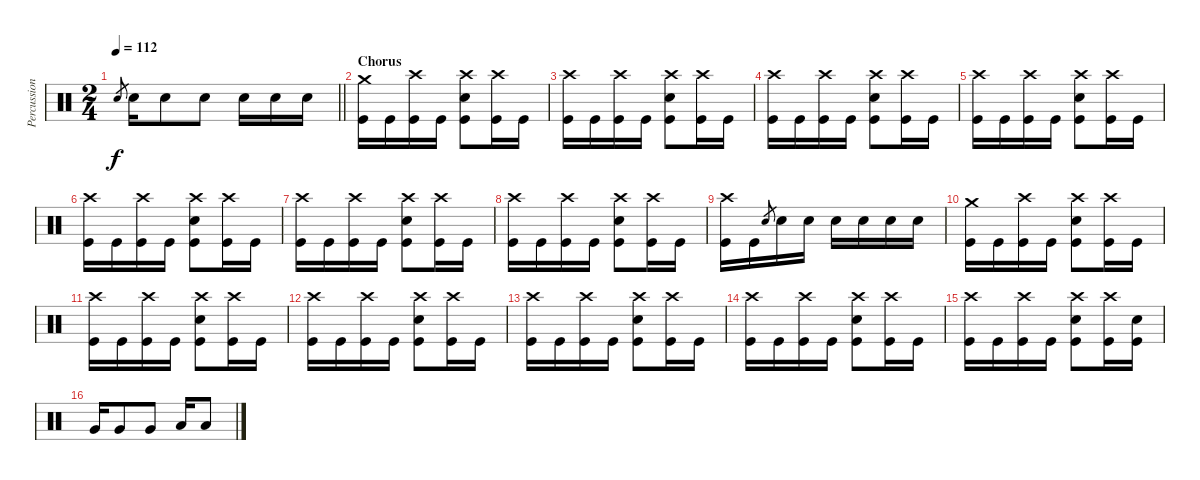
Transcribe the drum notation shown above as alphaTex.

\track ("Percussion" "Percussion") {instrument percussion}
\staff {score}
\articulation defaults
\ts (2 4)
\tempo 112
\clef neutral
\barLineRight lightlight
\ks c "Electric Snare (hit)".8{gr dy f} "Electric Snare (hit)".16 "Electric Snare (hit)".8 "Electric Snare (hit)".8 "Electric Snare (hit)".16 "Electric Snare (hit)".16 "Electric Snare (hit)".16
|
\section ("" "Chorus")
("Crash medium (hit)" "Kick (hit)").16 "Kick (hit)".16 ("Crash high (hit)" "Kick (hit)").16 "Kick (hit)".16 ("Crash high (hit)" "Electric Snare (hit)" "Kick (hit)").8 ("Crash high (hit)" "Kick (hit)").16 "Kick (hit)".16 |
("Crash high (hit)" "Kick (hit)").16 "Kick (hit)".16 ("Crash high (hit)" "Kick (hit)").16 "Kick (hit)".16 ("Crash high (hit)" "Electric Snare (hit)" "Kick (hit)").8 ("Crash high (hit)" "Kick (hit)").16 "Kick (hit)".16 |
("Crash high (hit)" "Kick (hit)").16 "Kick (hit)".16 ("Crash high (hit)" "Kick (hit)").16 "Kick (hit)".16 ("Crash high (hit)" "Electric Snare (hit)" "Kick (hit)").8 ("Crash high (hit)" "Kick (hit)").16 "Kick (hit)".16 |
("Crash high (hit)" "Kick (hit)").16 "Kick (hit)".16 ("Crash high (hit)" "Kick (hit)").16 "Kick (hit)".16 ("Crash high (hit)" "Electric Snare (hit)" "Kick (hit)").8 ("Crash high (hit)" "Kick (hit)").16 "Kick (hit)".16 |
("Crash high (hit)" "Kick (hit)").16 "Kick (hit)".16 ("Crash high (hit)" "Kick (hit)").16 "Kick (hit)".16 ("Crash high (hit)" "Electric Snare (hit)" "Kick (hit)").8 ("Crash high (hit)" "Kick (hit)").16 "Kick (hit)".16 |
("Crash high (hit)" "Kick (hit)").16 "Kick (hit)".16 ("Crash high (hit)" "Kick (hit)").16 "Kick (hit)".16 ("Crash high (hit)" "Electric Snare (hit)" "Kick (hit)").8 ("Crash high (hit)" "Kick (hit)").16 "Kick (hit)".16 |
("Crash high (hit)" "Kick (hit)").16 "Kick (hit)".16 ("Crash high (hit)" "Kick (hit)").16 "Kick (hit)".16 ("Crash high (hit)" "Electric Snare (hit)" "Kick (hit)").8 ("Crash high (hit)" "Kick (hit)").16 "Kick (hit)".16 |
("Crash high (hit)" "Kick (hit)").16 "Kick (hit)".16 "Electric Snare (hit)".8{gr} "Electric Snare (hit)".16 "Electric Snare (hit)".16 "Electric Snare (hit)".16 "Electric Snare (hit)".16 "Electric Snare (hit)".16 "Electric Snare (hit)".16 |
("Crash medium (hit)" "Kick (hit)").16 "Kick (hit)".16 ("Crash high (hit)" "Kick (hit)").16 "Kick (hit)".16 ("Crash high (hit)" "Electric Snare (hit)" "Kick (hit)").8 ("Crash high (hit)" "Kick (hit)").16 "Kick (hit)".16 |
("Crash high (hit)" "Kick (hit)").16 "Kick (hit)".16 ("Crash high (hit)" "Kick (hit)").16 "Kick (hit)".16 ("Crash high (hit)" "Electric Snare (hit)" "Kick (hit)").8 ("Crash high (hit)" "Kick (hit)").16 "Kick (hit)".16 |
("Crash high (hit)" "Kick (hit)").16 "Kick (hit)".16 ("Crash high (hit)" "Kick (hit)").16 "Kick (hit)".16 ("Crash high (hit)" "Electric Snare (hit)" "Kick (hit)").8 ("Crash high (hit)" "Kick (hit)").16 "Kick (hit)".16 |
("Crash high (hit)" "Kick (hit)").16 "Kick (hit)".16 ("Crash high (hit)" "Kick (hit)").16 "Kick (hit)".16 ("Crash high (hit)" "Electric Snare (hit)" "Kick (hit)").8 ("Crash high (hit)" "Kick (hit)").16 "Kick (hit)".16 |
("Crash high (hit)" "Kick (hit)").16 "Kick (hit)".16 ("Crash high (hit)" "Kick (hit)").16 "Kick (hit)".16 ("Crash high (hit)" "Electric Snare (hit)" "Kick (hit)").8 ("Crash high (hit)" "Kick (hit)").16 "Kick (hit)".16 |
("Crash high (hit)" "Kick (hit)").16 "Kick (hit)".16 ("Crash high (hit)" "Kick (hit)").16 "Kick (hit)".16 ("Crash high (hit)" "Electric Snare (hit)" "Kick (hit)").8 ("Crash high (hit)" "Kick (hit)").16 ("Electric Snare (hit)" "Kick (hit)").16 |
"Very Low Tom (hit)".16 "Very Low Tom (hit)".8 "Very Low Tom (hit)".8 "Low Floor Tom (hit)".16 "Low Floor Tom (hit)".8
